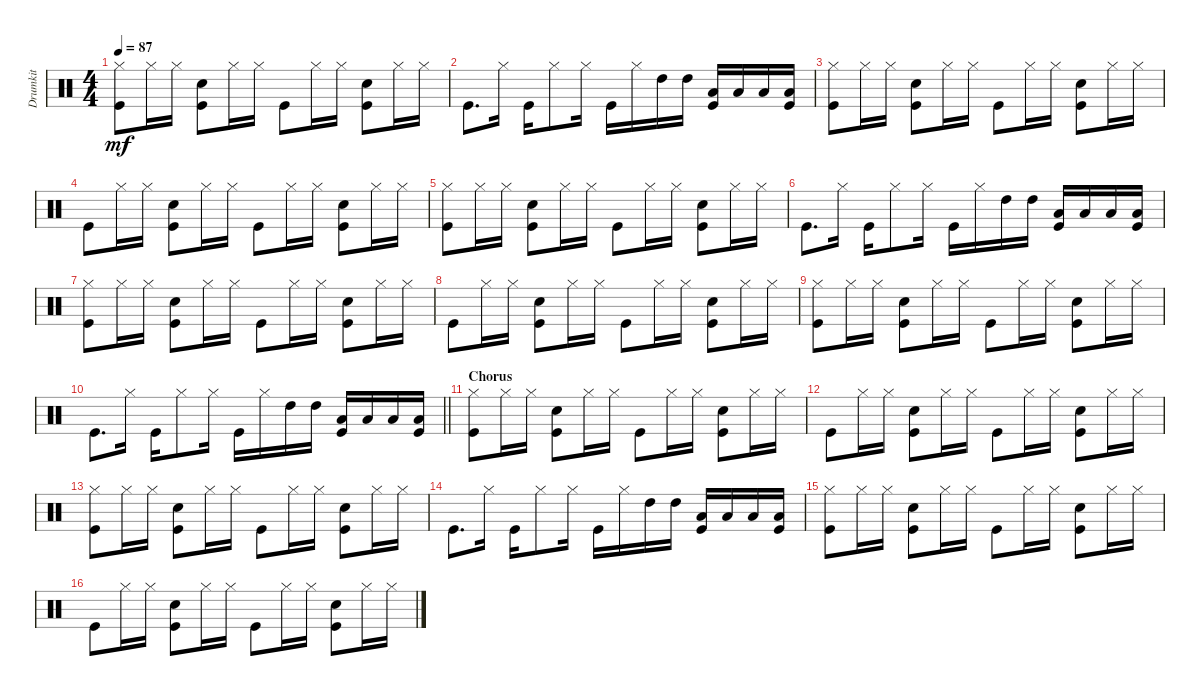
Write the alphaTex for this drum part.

\track ("Drumkit" "Drumkit") {instrument percussion}
\staff {score}
\articulation defaults
\ts (4 4)
\tempo 87
\clef neutral
\ks c
("Kick (hit)" "Hi-Hat (closed)").8{dy mf} "Hi-Hat (closed)".16 "Hi-Hat (closed)".16 ("Kick (hit)" "Snare (hit) 2").8 "Hi-Hat (closed)".16 "Hi-Hat (closed)".16 "Kick (hit)".8 "Hi-Hat (closed)".16 "Hi-Hat (closed)".16 ("Snare (hit) 2" "Kick (hit)").8 "Hi-Hat (closed)".16 "Hi-Hat (closed)".16 |
"Kick (hit)".8{d} "Hi-Hat (closed)".16 "Kick (hit)".16 "Hi-Hat (closed)".8 "Hi-Hat (closed)".16 "Kick (hit)".16 "Hi-Hat (closed)".16 "High Tom (hit)".16 "High Tom (hit)".16 ("Kick (hit)" "Low Tom (hit)").16 "Low Tom (hit)".16 "Low Floor Tom (hit)".16 ("Kick (hit)" "Low Floor Tom (hit)").16 |
("Kick (hit)" "Hi-Hat (closed)").8 "Hi-Hat (closed)".16 "Hi-Hat (closed)".16 ("Kick (hit)" "Snare (hit) 2").8 "Hi-Hat (closed)".16 "Hi-Hat (closed)".16 "Kick (hit)".8 "Hi-Hat (closed)".16 "Hi-Hat (closed)".16 ("Snare (hit) 2" "Kick (hit)").8 "Hi-Hat (closed)".16 "Hi-Hat (closed)".16 |
"Kick (hit)".8 "Hi-Hat (closed)".16 "Hi-Hat (closed)".16 ("Kick (hit)" "Snare (hit) 2").8 "Hi-Hat (closed)".16 "Hi-Hat (closed)".16 "Kick (hit)".8 "Hi-Hat (closed)".16 "Hi-Hat (closed)".16 ("Kick (hit)" "Snare (hit) 2").8 "Hi-Hat (closed)".16 "Hi-Hat (closed)".16 |
("Kick (hit)" "Hi-Hat (closed)").8 "Hi-Hat (closed)".16 "Hi-Hat (closed)".16 ("Kick (hit)" "Snare (hit) 2").8 "Hi-Hat (closed)".16 "Hi-Hat (closed)".16 "Kick (hit)".8 "Hi-Hat (closed)".16 "Hi-Hat (closed)".16 ("Snare (hit) 2" "Kick (hit)").8 "Hi-Hat (closed)".16 "Hi-Hat (closed)".16 |
"Kick (hit)".8{d} "Hi-Hat (closed)".16 "Kick (hit)".16 "Hi-Hat (closed)".8 "Hi-Hat (closed)".16 "Kick (hit)".16 "Hi-Hat (closed)".16 "High Tom (hit)".16 "High Tom (hit)".16 ("Kick (hit)" "Low Tom (hit)").16 "Low Tom (hit)".16 "Low Floor Tom (hit)".16 ("Kick (hit)" "Low Floor Tom (hit)").16 |
("Kick (hit)" "Hi-Hat (closed)").8 "Hi-Hat (closed)".16 "Hi-Hat (closed)".16 ("Kick (hit)" "Snare (hit) 2").8 "Hi-Hat (closed)".16 "Hi-Hat (closed)".16 "Kick (hit)".8 "Hi-Hat (closed)".16 "Hi-Hat (closed)".16 ("Snare (hit) 2" "Kick (hit)").8 "Hi-Hat (closed)".16 "Hi-Hat (closed)".16 |
"Kick (hit)".8 "Hi-Hat (closed)".16 "Hi-Hat (closed)".16 ("Kick (hit)" "Snare (hit) 2").8 "Hi-Hat (closed)".16 "Hi-Hat (closed)".16 "Kick (hit)".8 "Hi-Hat (closed)".16 "Hi-Hat (closed)".16 ("Kick (hit)" "Snare (hit) 2").8 "Hi-Hat (closed)".16 "Hi-Hat (closed)".16 |
("Kick (hit)" "Hi-Hat (closed)").8 "Hi-Hat (closed)".16 "Hi-Hat (closed)".16 ("Kick (hit)" "Snare (hit) 2").8 "Hi-Hat (closed)".16 "Hi-Hat (closed)".16 "Kick (hit)".8 "Hi-Hat (closed)".16 "Hi-Hat (closed)".16 ("Snare (hit) 2" "Kick (hit)").8 "Hi-Hat (closed)".16 "Hi-Hat (closed)".16 |
\barLineRight lightlight "Kick (hit)".8{d} "Hi-Hat (closed)".16 "Kick (hit)".16 "Hi-Hat (closed)".8 "Hi-Hat (closed)".16 "Kick (hit)".16 "Hi-Hat (closed)".16 "High Tom (hit)".16 "High Tom (hit)".16
("Kick (hit)" "Low Tom (hit)").16 "Low Tom (hit)".16 "Low Floor Tom (hit)".16 ("Kick (hit)" "Low Floor Tom (hit)").16 |
\section ("" "Chorus")
("Kick (hit)" "Hi-Hat (closed)").8 "Hi-Hat (closed)".16 "Hi-Hat (closed)".16 ("Kick (hit)" "Snare (hit) 2").8 "Hi-Hat (closed)".16 "Hi-Hat (closed)".16 "Kick (hit)".8 "Hi-Hat (closed)".16 "Hi-Hat (closed)".16 ("Snare (hit) 2" "Kick (hit)").8 "Hi-Hat (closed)".16 "Hi-Hat (closed)".16 |
"Kick (hit)".8 "Hi-Hat (closed)".16 "Hi-Hat (closed)".16 ("Kick (hit)" "Snare (hit) 2").8 "Hi-Hat (closed)".16 "Hi-Hat (closed)".16 "Kick (hit)".8 "Hi-Hat (closed)".16 "Hi-Hat (closed)".16 ("Kick (hit)" "Snare (hit) 2").8 "Hi-Hat (closed)".16 "Hi-Hat (closed)".16 |
("Kick (hit)" "Hi-Hat (closed)").8 "Hi-Hat (closed)".16 "Hi-Hat (closed)".16 ("Kick (hit)" "Snare (hit) 2").8 "Hi-Hat (closed)".16 "Hi-Hat (closed)".16 "Kick (hit)".8 "Hi-Hat (closed)".16 "Hi-Hat (closed)".16 ("Snare (hit) 2" "Kick (hit)").8 "Hi-Hat (closed)".16 "Hi-Hat (closed)".16 |
"Kick (hit)".8{d} "Hi-Hat (closed)".16 "Kick (hit)".16 "Hi-Hat (closed)".8 "Hi-Hat (closed)".16 "Kick (hit)".16 "Hi-Hat (closed)".16 "High Tom (hit)".16 "High Tom (hit)".16 ("Kick (hit)" "Low Tom (hit)").16 "Low Tom (hit)".16 "Low Floor Tom (hit)".16 ("Kick (hit)" "Low Floor Tom (hit)").16 |
("Kick (hit)" "Hi-Hat (closed)").8 "Hi-Hat (closed)".16 "Hi-Hat (closed)".16 ("Kick (hit)" "Snare (hit) 2").8 "Hi-Hat (closed)".16 "Hi-Hat (closed)".16 "Kick (hit)".8 "Hi-Hat (closed)".16 "Hi-Hat (closed)".16 ("Snare (hit) 2" "Kick (hit)").8 "Hi-Hat (closed)".16 "Hi-Hat (closed)".16 |
"Kick (hit)".8 "Hi-Hat (closed)".16 "Hi-Hat (closed)".16 ("Kick (hit)" "Snare (hit) 2").8 "Hi-Hat (closed)".16 "Hi-Hat (closed)".16 "Kick (hit)".8 "Hi-Hat (closed)".16 "Hi-Hat (closed)".16 ("Kick (hit)" "Snare (hit) 2").8 "Hi-Hat (closed)".16 "Hi-Hat (closed)".16
